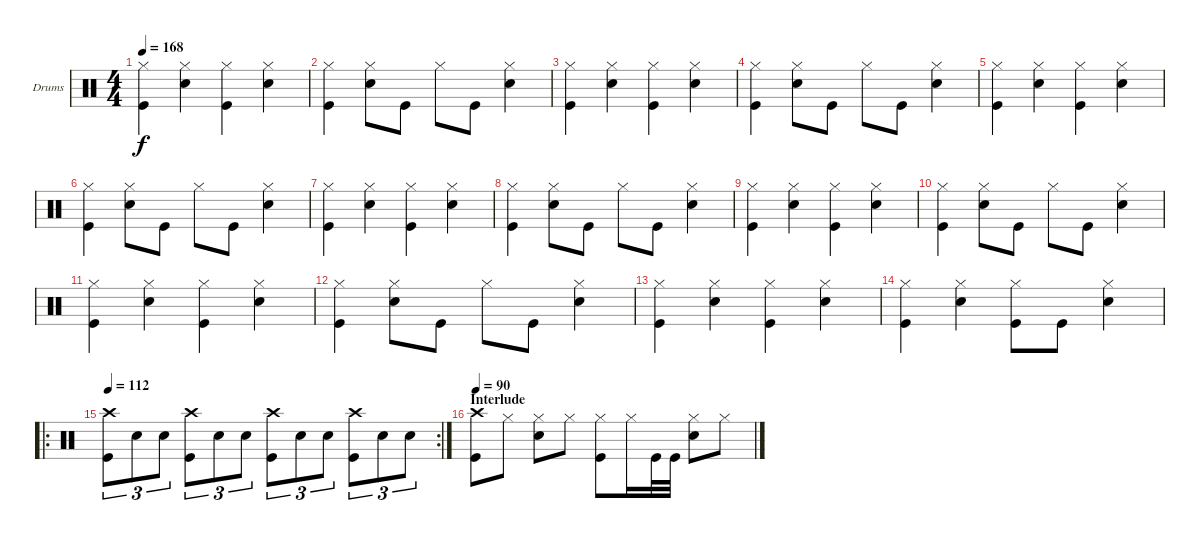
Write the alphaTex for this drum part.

\bracketExtendMode groupsimilarinstruments
\firstSystemTrackNameOrientation horizontal
\otherSystemsTrackNameOrientation horizontal
\track ("Drums" "Drums") {instrument percussion}
\staff {score}
\articulation defaults
\ts (4 4)
\tempo 168
\clef neutral
\ks c
("Hi-Hat (closed)" "Kick (hit)").4{dy f} ("Snare (hit) 2" "Hi-Hat (closed)").4 ("Kick (hit)" "Hi-Hat (closed)").4 ("Hi-Hat (closed)" "Snare (hit) 2").4 |
("Kick (hit)" "Hi-Hat (closed)").4 ("Snare (hit) 2" "Hi-Hat (closed)").8 "Kick (hit)".8 "Hi-Hat (closed)".8 "Kick (hit)".8 ("Snare (hit) 2" "Hi-Hat (closed)").4 |
("Hi-Hat (closed)" "Kick (hit)").4 ("Snare (hit) 2" "Hi-Hat (closed)").4 ("Kick (hit)" "Hi-Hat (closed)").4 ("Hi-Hat (closed)" "Snare (hit) 2").4 |
("Kick (hit)" "Hi-Hat (closed)").4 ("Snare (hit) 2" "Hi-Hat (closed)").8 "Kick (hit)".8 "Hi-Hat (closed)".8 "Kick (hit)".8 ("Snare (hit) 2" "Hi-Hat (closed)").4 |
("Hi-Hat (closed)" "Kick (hit)").4 ("Snare (hit) 2" "Hi-Hat (closed)").4 ("Kick (hit)" "Hi-Hat (closed)").4 ("Hi-Hat (closed)" "Snare (hit) 2").4 |
("Kick (hit)" "Hi-Hat (closed)").4 ("Snare (hit) 2" "Hi-Hat (closed)").8 "Kick (hit)".8 "Hi-Hat (closed)".8 "Kick (hit)".8 ("Snare (hit) 2" "Hi-Hat (closed)").4 |
("Hi-Hat (closed)" "Kick (hit)").4 ("Snare (hit) 2" "Hi-Hat (closed)").4 ("Kick (hit)" "Hi-Hat (closed)").4 ("Hi-Hat (closed)" "Snare (hit) 2").4 |
("Kick (hit)" "Hi-Hat (closed)").4 ("Snare (hit) 2" "Hi-Hat (closed)").8 "Kick (hit)".8 "Hi-Hat (closed)".8 "Kick (hit)".8 ("Snare (hit) 2" "Hi-Hat (closed)").4 |
("Hi-Hat (closed)" "Kick (hit)").4 ("Snare (hit) 2" "Hi-Hat (closed)").4 ("Kick (hit)" "Hi-Hat (closed)").4 ("Hi-Hat (closed)" "Snare (hit) 2").4 |
("Kick (hit)" "Hi-Hat (closed)").4 ("Snare (hit) 2" "Hi-Hat (closed)").8 "Kick (hit)".8 "Hi-Hat (closed)".8 "Kick (hit)".8 ("Snare (hit) 2" "Hi-Hat (closed)").4 |
("Hi-Hat (closed)" "Kick (hit)").4 ("Snare (hit) 2" "Hi-Hat (closed)").4 ("Kick (hit)" "Hi-Hat (closed)").4 ("Hi-Hat (closed)" "Snare (hit) 2").4 |
("Kick (hit)" "Hi-Hat (closed)").4 ("Snare (hit) 2" "Hi-Hat (closed)").8 "Kick (hit)".8 "Hi-Hat (closed)".8 "Kick (hit)".8 ("Snare (hit) 2" "Hi-Hat (closed)").4 |
("Hi-Hat (closed)" "Kick (hit)").4 ("Snare (hit) 2" "Hi-Hat (closed)").4 ("Kick (hit)" "Hi-Hat (closed)").4 ("Hi-Hat (closed)" "Snare (hit) 2").4 |
("Kick (hit)" "Hi-Hat (closed)").4 ("Snare (hit) 2" "Hi-Hat (closed)").4 ("Kick (hit)" "Hi-Hat (closed)").8 "Kick (hit)".8 ("Snare (hit) 2" "Hi-Hat (closed)").4 |
\ro
\rc 2
\tempo 112
("Kick (hit)" "Crash high (hit)").8{tu (3 2)} "Snare (hit) 2".8{tu (3 2)} "Snare (hit) 2".8{tu (3 2)} ("Kick (hit)" "Crash high (hit)").8{tu (3 2)} "Snare (hit) 2".8{tu (3 2)} "Snare (hit) 2".8{tu (3 2)} ("Kick (hit)" "Crash high (hit)").8{tu (3 2)} "Snare (hit) 2".8{tu (3 2)} "Snare (hit) 2".8{tu (3 2)} ("Kick (hit)" "Crash high (hit)").8{tu (3 2)} "Snare (hit) 2".8{tu (3 2)} "Snare (hit) 2".8{tu (3 2)} |
\section ("" "Interlude")
\tempo 90
("Crash high (hit)" "Kick (hit)").8 "Hi-Hat (closed)".8 ("Snare (hit) 2" "Hi-Hat (closed)").8 "Hi-Hat (closed)".8 ("Hi-Hat (closed)" "Kick (hit)").8 "Hi-Hat (closed)".16 "Kick (hit)".32 "Kick (hit)".32 ("Snare (hit) 2" "Hi-Hat (closed)").8 "Hi-Hat (closed)".8
